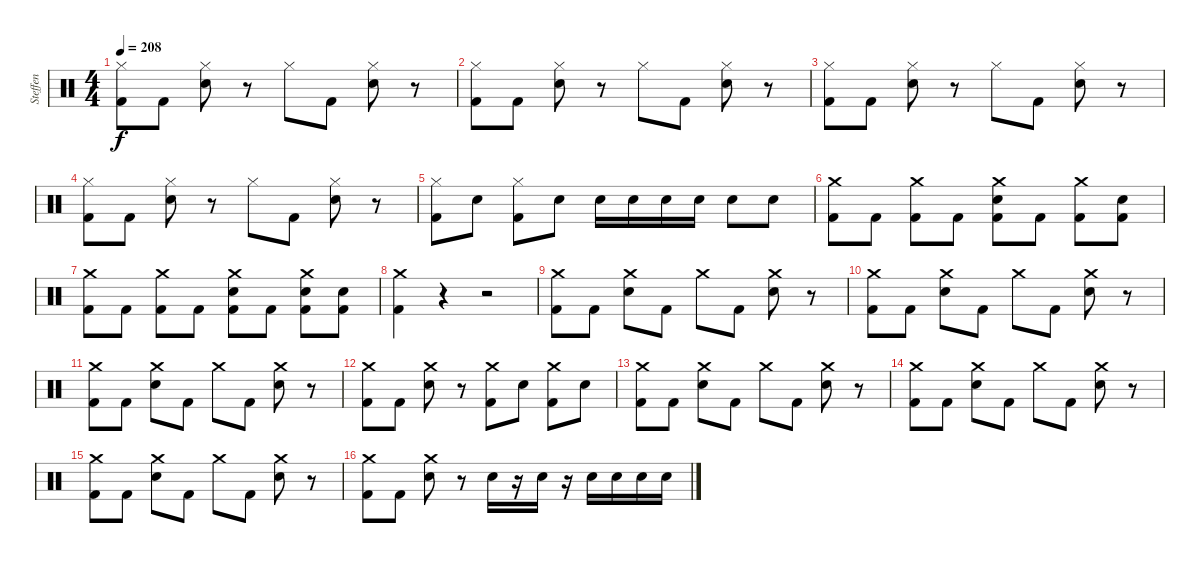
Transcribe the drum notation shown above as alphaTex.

\track ("Steffen" "Steffen") {instrument percussion}
\staff {score}
\articulation defaults
\ts (4 4)
\tempo 208
\clef neutral
\ks c
("Hi-Hat (closed)" "Kick (hit) 2").8{dy f} "Kick (hit) 2".8 ("Hi-Hat (closed)" "Snare (hit) 2").8 r.8 "Hi-Hat (closed)".8 "Kick (hit) 2".8 ("Hi-Hat (closed)" "Snare (hit) 2").8 r.8 |
("Hi-Hat (closed)" "Kick (hit) 2").8 "Kick (hit) 2".8 ("Hi-Hat (closed)" "Snare (hit) 2").8 r.8 "Hi-Hat (closed)".8 "Kick (hit) 2".8 ("Hi-Hat (closed)" "Snare (hit) 2").8 r.8 |
("Hi-Hat (closed)" "Kick (hit) 2").8 "Kick (hit) 2".8 ("Hi-Hat (closed)" "Snare (hit) 2").8 r.8 "Hi-Hat (closed)".8 "Kick (hit) 2".8 ("Hi-Hat (closed)" "Snare (hit) 2").8 r.8 |
("Hi-Hat (closed)" "Kick (hit) 2").8 "Kick (hit) 2".8 ("Hi-Hat (closed)" "Snare (hit) 2").8 r.8 "Hi-Hat (closed)".8 "Kick (hit) 2".8 ("Hi-Hat (closed)" "Snare (hit) 2").8 r.8 |
("Hi-Hat (closed)" "Kick (hit) 2").8 "Snare (hit) 2".8 ("Hi-Hat (closed)" "Kick (hit) 2").8 "Snare (hit) 2".8 "Snare (hit) 2".16 "Snare (hit) 2".16 "Snare (hit) 2".16 "Snare (hit) 2".16 "Snare (hit) 2".8 "Snare (hit) 2".8 |
("Crash medium (hit)" "Kick (hit) 2").8 "Kick (hit) 2".8 ("Crash medium (hit)" "Kick (hit) 2").8 "Kick (hit) 2".8 ("Crash medium (hit)" "Snare (hit) 2" "Kick (hit) 2").8 "Kick (hit) 2".8 ("Crash medium (hit)" "Kick (hit) 2").8 ("Snare (hit) 2" "Kick (hit) 2").8 |
("Crash medium (hit)" "Kick (hit) 2").8 "Kick (hit) 2".8 ("Crash medium (hit)" "Kick (hit) 2").8 "Kick (hit) 2".8 ("Crash medium (hit)" "Snare (hit) 2" "Kick (hit) 2").8 "Kick (hit) 2".8 ("Crash medium (hit)" "Snare (hit) 2" "Kick (hit) 2").8 ("Snare (hit) 2" "Kick (hit) 2").8 |
("Crash medium (hit)" "Kick (hit) 2").4 r.4 r.2 |
("Crash medium (hit)" "Kick (hit) 2").8 "Kick (hit) 2".8 ("Crash medium (hit)" "Snare (hit) 2").8 "Kick (hit) 2".8 "Crash medium (hit)".8 "Kick (hit) 2".8 ("Crash medium (hit)" "Snare (hit) 2").8 r.8 |
("Crash medium (hit)" "Kick (hit) 2").8 "Kick (hit) 2".8 ("Crash medium (hit)" "Snare (hit) 2").8 "Kick (hit) 2".8 "Crash medium (hit)".8 "Kick (hit) 2".8 ("Crash medium (hit)" "Snare (hit) 2").8 r.8 |
("Crash medium (hit)" "Kick (hit) 2").8 "Kick (hit) 2".8 ("Crash medium (hit)" "Snare (hit) 2").8 "Kick (hit) 2".8 "Crash medium (hit)".8 "Kick (hit) 2".8 ("Crash medium (hit)" "Snare (hit) 2").8 r.8 |
("Crash medium (hit)" "Kick (hit) 2").8 "Kick (hit) 2".8 ("Crash medium (hit)" "Snare (hit) 2").8 r.8 ("Crash medium (hit)" "Kick (hit) 2").8 "Snare (hit) 2".8 ("Crash medium (hit)" "Kick (hit) 2").8 "Snare (hit) 2".8 |
("Crash medium (hit)" "Kick (hit) 2").8 "Kick (hit) 2".8 ("Crash medium (hit)" "Snare (hit) 2").8 "Kick (hit) 2".8 "Crash medium (hit)".8 "Kick (hit) 2".8 ("Crash medium (hit)" "Snare (hit) 2").8 r.8 |
("Crash medium (hit)" "Kick (hit) 2").8 "Kick (hit) 2".8 ("Crash medium (hit)" "Snare (hit) 2").8 "Kick (hit) 2".8 "Crash medium (hit)".8 "Kick (hit) 2".8 ("Crash medium (hit)" "Snare (hit) 2").8 r.8 |
("Crash medium (hit)" "Kick (hit) 2").8 "Kick (hit) 2".8 ("Crash medium (hit)" "Snare (hit) 2").8 "Kick (hit) 2".8 "Crash medium (hit)".8 "Kick (hit) 2".8 ("Crash medium (hit)" "Snare (hit) 2").8 r.8 |
("Crash medium (hit)" "Kick (hit) 2").8 "Kick (hit) 2".8 ("Crash medium (hit)" "Snare (hit) 2").8 r.8 "Snare (hit) 2".16 r.16 "Snare (hit) 2".16 r.16 "Snare (hit) 2".16 "Snare (hit) 2".16 "Snare (hit) 2".16 "Snare (hit) 2".16
